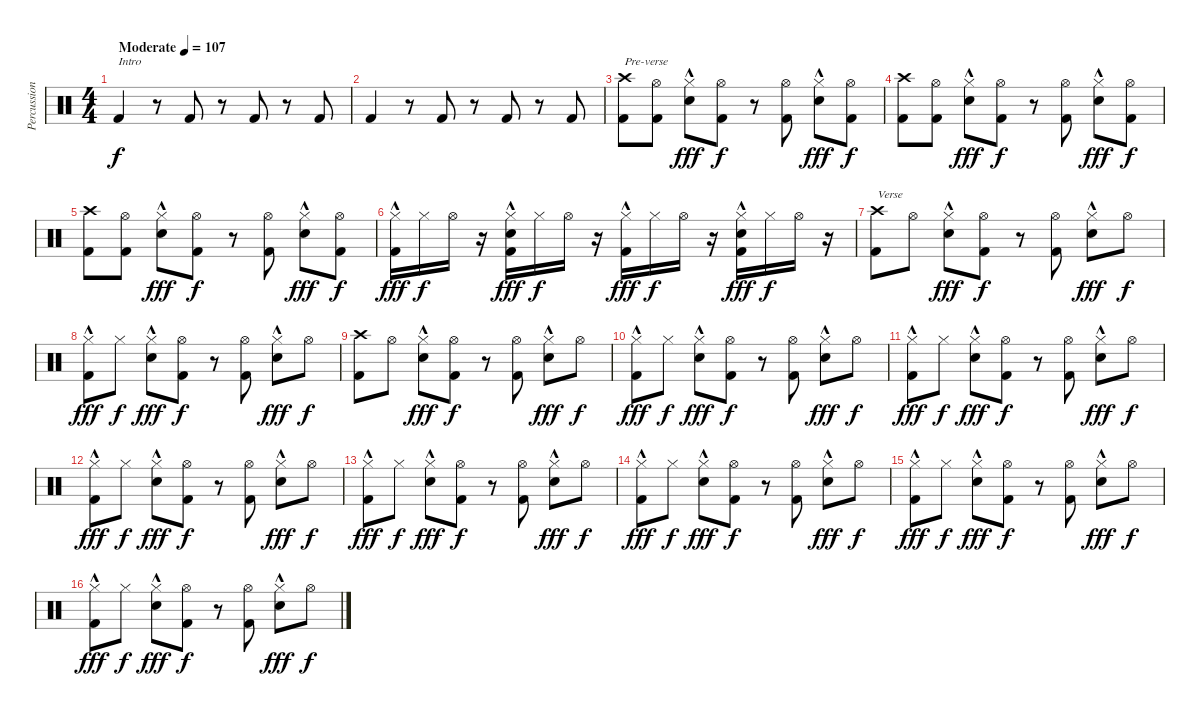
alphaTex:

\track ("Percussion" "Percussion") {instrument percussion}
\staff {score}
\articulation defaults
\ts (4 4)
\tempo (107 "Moderate")
\clef neutral
\ks c "Kick (hit) 2".4{txt "Intro" dy f}
r.8 "Kick (hit) 2".8 r.8 "Kick (hit) 2".8 r.8 "Kick (hit) 2".8 |
"Kick (hit) 2".4 r.8 "Kick (hit) 2".8 r.8 "Kick (hit) 2".8 r.8 "Kick (hit) 2".8 |
("Crash high (hit)" "Kick (hit) 2").8{txt "Pre-verse"} ("Hi-Hat (open)" "Kick (hit) 2").8 ("Hi-Hat (closed)"{hac} "Snare (hit) 2").8{dy fff} ("Hi-Hat (open)" "Kick (hit) 2").8{dy f} r.8 ("Hi-Hat (open)" "Kick (hit) 2").8 ("Hi-Hat (closed)"{hac} "Snare (hit) 2").8{dy fff} ("Hi-Hat (open)" "Kick (hit) 2").8{dy f} |
("Crash high (hit)" "Kick (hit) 2").8 ("Hi-Hat (open)" "Kick (hit) 2").8 ("Hi-Hat (closed)"{hac} "Snare (hit) 2").8{dy fff} ("Hi-Hat (open)" "Kick (hit) 2").8{dy f} r.8 ("Hi-Hat (open)" "Kick (hit) 2").8 ("Hi-Hat (closed)"{hac} "Snare (hit) 2").8{dy fff} ("Hi-Hat (open)" "Kick (hit) 2").8{dy f} |
("Crash high (hit)" "Kick (hit) 2").8 ("Hi-Hat (open)" "Kick (hit) 2").8 ("Hi-Hat (closed)"{hac} "Snare (hit) 2").8{dy fff} ("Hi-Hat (open)" "Kick (hit) 2").8{dy f} r.8 ("Hi-Hat (open)" "Kick (hit) 2").8 ("Hi-Hat (closed)"{hac} "Snare (hit) 2").8{dy fff} ("Hi-Hat (open)" "Kick (hit) 2").8{dy f} |
("Hi-Hat (closed)"{hac} "Kick (hit) 2").16{dy fff} "Hi-Hat (closed)".16{dy f} "Hi-Hat (open)".16 r.16 ("Hi-Hat (closed)"{hac} "Snare (hit) 2" "Kick (hit) 2").16{dy fff} "Hi-Hat (closed)".16{dy f} "Hi-Hat (open)".16 r.16 ("Hi-Hat (closed)"{hac} "Kick (hit) 2").16{dy fff} "Hi-Hat (closed)".16{dy f} "Hi-Hat (open)".16 r.16 ("Hi-Hat (closed)"{hac} "Snare (hit) 2" "Kick (hit) 2").16{dy fff} "Hi-Hat (closed)".16{dy f} "Hi-Hat (open)".16 r.16 |
("Crash high (hit)" "Kick (hit) 2").8{txt "Verse"} "Hi-Hat (open)".8 ("Hi-Hat (closed)"{hac} "Snare (hit) 2").8{dy fff} ("Hi-Hat (open)" "Kick (hit) 2").8{dy f} r.8 ("Hi-Hat (open)" "Kick (hit) 2").8 ("Hi-Hat (closed)"{hac} "Snare (hit) 2").8{dy fff} "Hi-Hat (open)".8{dy f} |
("Hi-Hat (closed)"{hac} "Kick (hit) 2").8{dy fff} "Hi-Hat (closed)".8{dy f} ("Hi-Hat (closed)"{hac} "Snare (hit) 2").8{dy fff} ("Hi-Hat (open)" "Kick (hit) 2").8{dy f} r.8 ("Hi-Hat (open)" "Kick (hit) 2").8 ("Hi-Hat (closed)"{hac} "Snare (hit) 2").8{dy fff} "Hi-Hat (open)".8{dy f} |
("Crash high (hit)" "Kick (hit) 2").8 "Hi-Hat (open)".8 ("Hi-Hat (closed)"{hac} "Snare (hit) 2").8{dy fff} ("Hi-Hat (open)" "Kick (hit) 2").8{dy f} r.8 ("Hi-Hat (open)" "Kick (hit) 2").8 ("Hi-Hat (closed)"{hac} "Snare (hit) 2").8{dy fff} "Hi-Hat (open)".8{dy f} |
("Hi-Hat (closed)"{hac} "Kick (hit) 2").8{dy fff} "Hi-Hat (closed)".8{dy f} ("Hi-Hat (closed)"{hac} "Snare (hit) 2").8{dy fff} ("Hi-Hat (open)" "Kick (hit) 2").8{dy f} r.8 ("Hi-Hat (open)" "Kick (hit) 2").8 ("Hi-Hat (closed)"{hac} "Snare (hit) 2").8{dy fff} "Hi-Hat (open)".8{dy f} |
("Hi-Hat (closed)"{hac} "Kick (hit) 2").8{dy fff} "Hi-Hat (closed)".8{dy f} ("Hi-Hat (closed)"{hac} "Snare (hit) 2").8{dy fff} ("Hi-Hat (open)" "Kick (hit) 2").8{dy f} r.8 ("Hi-Hat (open)" "Kick (hit) 2").8 ("Hi-Hat (closed)"{hac} "Snare (hit) 2").8{dy fff} "Hi-Hat (open)".8{dy f} |
("Hi-Hat (closed)"{hac} "Kick (hit) 2").8{dy fff} "Hi-Hat (closed)".8{dy f} ("Hi-Hat (closed)"{hac} "Snare (hit) 2").8{dy fff} ("Hi-Hat (open)" "Kick (hit) 2").8{dy f} r.8 ("Hi-Hat (open)" "Kick (hit) 2").8 ("Hi-Hat (closed)"{hac} "Snare (hit) 2").8{dy fff} "Hi-Hat (open)".8{dy f} |
("Hi-Hat (closed)"{hac} "Kick (hit) 2").8{dy fff} "Hi-Hat (closed)".8{dy f} ("Hi-Hat (closed)"{hac} "Snare (hit) 2").8{dy fff} ("Hi-Hat (open)" "Kick (hit) 2").8{dy f} r.8 ("Hi-Hat (open)" "Kick (hit) 2").8 ("Hi-Hat (closed)"{hac} "Snare (hit) 2").8{dy fff} "Hi-Hat (open)".8{dy f} |
("Hi-Hat (closed)"{hac} "Kick (hit) 2").8{dy fff} "Hi-Hat (closed)".8{dy f} ("Hi-Hat (closed)"{hac} "Snare (hit) 2").8{dy fff} ("Hi-Hat (open)" "Kick (hit) 2").8{dy f} r.8 ("Hi-Hat (open)" "Kick (hit) 2").8 ("Hi-Hat (closed)"{hac} "Snare (hit) 2").8{dy fff} "Hi-Hat (open)".8{dy f} |
("Hi-Hat (closed)"{hac} "Kick (hit) 2").8{dy fff} "Hi-Hat (closed)".8{dy f} ("Hi-Hat (closed)"{hac} "Snare (hit) 2").8{dy fff} ("Hi-Hat (open)" "Kick (hit) 2").8{dy f} r.8 ("Hi-Hat (open)" "Kick (hit) 2").8 ("Hi-Hat (closed)"{hac} "Snare (hit) 2").8{dy fff} "Hi-Hat (open)".8{dy f} |
("Hi-Hat (closed)"{hac} "Kick (hit) 2").8{dy fff} "Hi-Hat (closed)".8{dy f} ("Hi-Hat (closed)"{hac} "Snare (hit) 2").8{dy fff} ("Hi-Hat (open)" "Kick (hit) 2").8{dy f} r.8 ("Hi-Hat (open)" "Kick (hit) 2").8 ("Hi-Hat (closed)"{hac} "Snare (hit) 2").8{dy fff} "Hi-Hat (open)".8{dy f}
